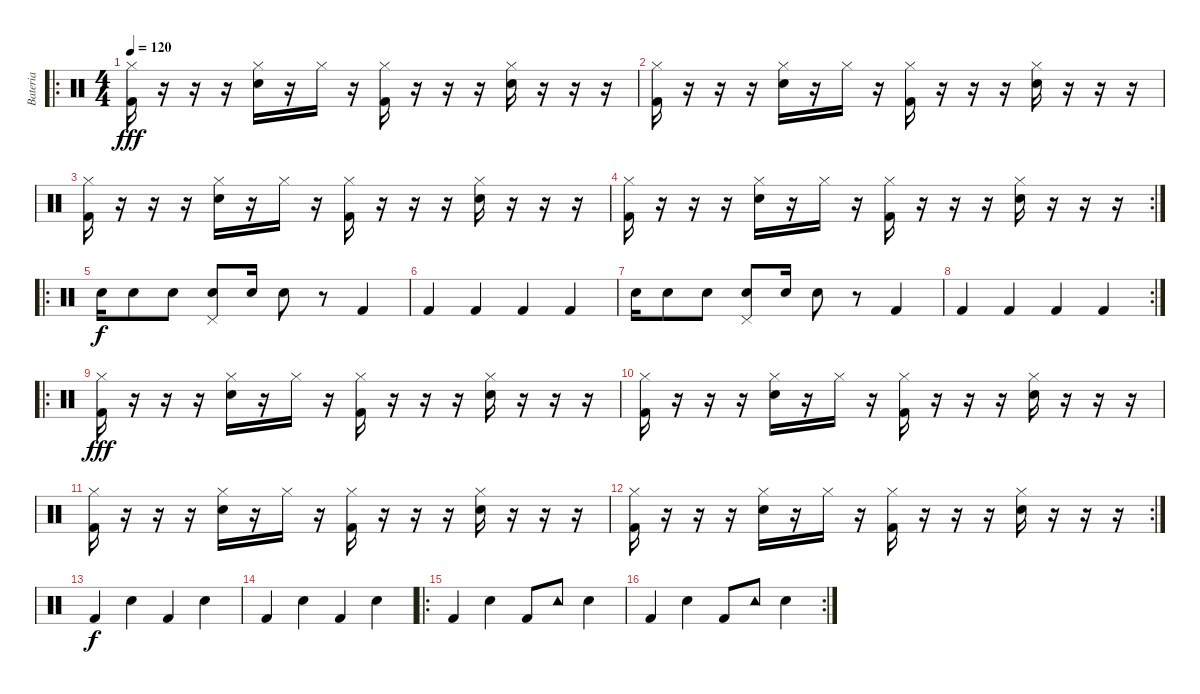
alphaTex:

\track ("Bateria" "Bateria") {instrument percussion}
\staff {score}
\articulation defaults
\ro
\ts (4 4)
\tempo 120
\clef neutral
\ks c
("Hi-Hat (closed)" "Kick (hit) 2").16{dy fff} r.16 r.16 r.16 ("Hi-Hat (closed)" "Electric Snare (hit)").16 r.16 "Hi-Hat (closed)".16 r.16 ("Hi-Hat (closed)" "Kick (hit) 2").16 r.16 r.16 r.16 ("Hi-Hat (closed)" "Electric Snare (hit)").16 r.16 r.16 r.16 |
("Hi-Hat (closed)" "Kick (hit) 2").16 r.16 r.16 r.16 ("Hi-Hat (closed)" "Electric Snare (hit)").16 r.16 "Hi-Hat (closed)".16 r.16 ("Hi-Hat (closed)" "Kick (hit) 2").16 r.16 r.16 r.16 ("Hi-Hat (closed)" "Electric Snare (hit)").16 r.16 r.16 r.16 |
("Hi-Hat (closed)" "Kick (hit) 2").16 r.16 r.16 r.16 ("Hi-Hat (closed)" "Electric Snare (hit)").16 r.16 "Hi-Hat (closed)".16 r.16 ("Hi-Hat (closed)" "Kick (hit) 2").16 r.16 r.16 r.16 ("Hi-Hat (closed)" "Electric Snare (hit)").16 r.16 r.16 r.16 |
\rc 2
("Hi-Hat (closed)" "Kick (hit) 2").16 r.16 r.16 r.16 ("Hi-Hat (closed)" "Electric Snare (hit)").16 r.16 "Hi-Hat (closed)".16 r.16 ("Hi-Hat (closed)" "Kick (hit) 2").16 r.16 r.16 r.16 ("Hi-Hat (closed)" "Electric Snare (hit)").16 r.16 r.16 r.16 |
\ro "Electric Snare (hit)".16{dy f} "Electric Snare (hit)".8 "Electric Snare (hit)".8
("Electric Snare (hit)" "Pedal Hi-Hat (hit)").8 "Electric Snare (hit)".16 "Electric Snare (hit)".8 r.8 "Kick (hit) 2".4 |
"Kick (hit) 2".4 "Kick (hit) 2".4 "Kick (hit) 2".4 "Kick (hit) 2".4 |
"Electric Snare (hit)".16 "Electric Snare (hit)".8 "Electric Snare (hit)".8 ("Electric Snare (hit)" "Pedal Hi-Hat (hit)").8 "Electric Snare (hit)".16 "Electric Snare (hit)".8 r.8 "Kick (hit) 2".4 |
\rc 2 "Kick (hit) 2".4 "Kick (hit) 2".4 "Kick (hit) 2".4 "Kick (hit) 2".4
|
\ro
("Hi-Hat (closed)" "Kick (hit) 2").16{dy fff} r.16 r.16 r.16 ("Hi-Hat (closed)" "Electric Snare (hit)").16 r.16 "Hi-Hat (closed)".16 r.16 ("Hi-Hat (closed)" "Kick (hit) 2").16 r.16 r.16 r.16 ("Hi-Hat (closed)" "Electric Snare (hit)").16 r.16 r.16 r.16 |
("Hi-Hat (closed)" "Kick (hit) 2").16 r.16 r.16 r.16 ("Hi-Hat (closed)" "Electric Snare (hit)").16 r.16 "Hi-Hat (closed)".16 r.16 ("Hi-Hat (closed)" "Kick (hit) 2").16 r.16 r.16 r.16 ("Hi-Hat (closed)" "Electric Snare (hit)").16 r.16 r.16 r.16 |
("Hi-Hat (closed)" "Kick (hit) 2").16 r.16 r.16 r.16 ("Hi-Hat (closed)" "Electric Snare (hit)").16 r.16 "Hi-Hat (closed)".16 r.16 ("Hi-Hat (closed)" "Kick (hit) 2").16 r.16 r.16 r.16 ("Hi-Hat (closed)" "Electric Snare (hit)").16 r.16 r.16 r.16 |
\rc 2
("Hi-Hat (closed)" "Kick (hit) 2").16 r.16 r.16 r.16 ("Hi-Hat (closed)" "Electric Snare (hit)").16 r.16 "Hi-Hat (closed)".16 r.16 ("Hi-Hat (closed)" "Kick (hit) 2").16 r.16 r.16 r.16 ("Hi-Hat (closed)" "Electric Snare (hit)").16 r.16 r.16 r.16 |
"Kick (hit) 2".4{dy f} "Electric Snare (hit)".4 "Kick (hit) 2".4 "Electric Snare (hit)".4 |
"Kick (hit) 2".4 "Electric Snare (hit)".4 "Kick (hit) 2".4 "Electric Snare (hit)".4 |
\ro "Kick (hit) 2".4 "Electric Snare (hit)".4 "Kick (hit) 2".8 "Tambourine (hit)".8 "Electric Snare (hit)".4
|
\rc 2 "Kick (hit) 2".4 "Electric Snare (hit)".4 "Kick (hit) 2".8 "Tambourine (hit)".8 "Electric Snare (hit)".4
